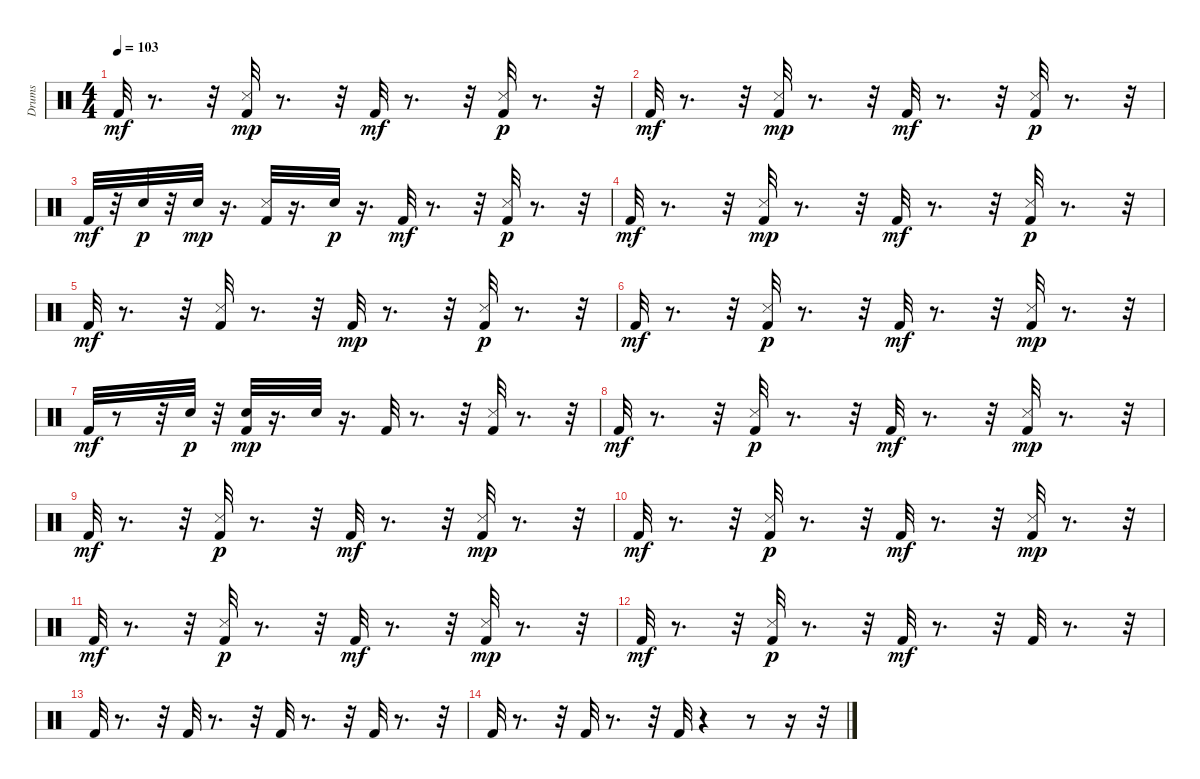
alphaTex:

\track ("Drums" "Drums") {instrument percussion}
\staff {score}
\articulation defaults
\ts (4 4)
\tempo 103
\clef neutral
\ks c "Kick (hit) 2".32{dy mf}
r.8{d} r.32 ("Kick (hit) 2" "Snare (side stick) 3").32{dy mp} r.8{d} r.32 "Kick (hit) 2".32{dy mf} r.8{d} r.32 ("Kick (hit) 2" "Snare (side stick) 3").32{dy p} r.8{d} r.32 |
"Kick (hit) 2".32{dy mf} r.8{d} r.32 ("Kick (hit) 2" "Snare (side stick) 3").32{dy mp} r.8{d} r.32 "Kick (hit) 2".32{dy mf} r.8{d} r.32 ("Kick (hit) 2" "Snare (side stick) 3").32{dy p} r.8{d} r.32 |
"Kick (hit) 2".32{dy mf} r.32 "Electric Snare (hit)".32{dy p} r.32 "Electric Snare (hit)".32{dy mp} r.16{d} ("Kick (hit) 2" "Snare (side stick) 3").32 r.16{d} "Electric Snare (hit)".32{dy p} r.16{d} "Kick (hit) 2".32{dy mf} r.8{d} r.32 ("Kick (hit) 2" "Snare (side stick) 3").32{dy p} r.8{d} r.32 |
"Kick (hit) 2".32{dy mf} r.8{d} r.32 ("Kick (hit) 2" "Snare (side stick) 3").32{dy mp} r.8{d} r.32 "Kick (hit) 2".32{dy mf} r.8{d} r.32 ("Kick (hit) 2" "Snare (side stick) 3").32{dy p} r.8{d} r.32 |
"Kick (hit) 2".32{dy mf} r.8{d} r.32 ("Kick (hit) 2" "Snare (side stick) 3").32 r.8{d} r.32 "Kick (hit) 2".32{dy mp} r.8{d} r.32 ("Kick (hit) 2" "Snare (side stick) 3").32{dy p} r.8{d} r.32 |
"Kick (hit) 2".32{dy mf} r.8{d} r.32 ("Kick (hit) 2" "Snare (side stick) 3").32{dy p} r.8{d} r.32 "Kick (hit) 2".32{dy mf} r.8{d} r.32 ("Kick (hit) 2" "Snare (side stick) 3").32{dy mp} r.8{d} r.32 |
"Kick (hit) 2".32{dy mf} r.8 r.32 "Electric Snare (hit)".32{dy p} r.32 ("Kick (hit) 2" "Electric Snare (hit)").32{dy mp} r.16{d} "Electric Snare (hit)".32 r.16{d} "Kick (hit) 2".32 r.8{d} r.32 ("Kick (hit) 2" "Snare (side stick) 3").32 r.8{d} r.32 |
"Kick (hit) 2".32{dy mf} r.8{d} r.32 ("Kick (hit) 2" "Snare (side stick) 3").32{dy p} r.8{d} r.32 "Kick (hit) 2".32{dy mf} r.8{d} r.32 ("Kick (hit) 2" "Snare (side stick) 3").32{dy mp} r.8{d} r.32 |
"Kick (hit) 2".32{dy mf} r.8{d} r.32 ("Kick (hit) 2" "Snare (side stick) 3").32{dy p} r.8{d} r.32 "Kick (hit) 2".32{dy mf} r.8{d} r.32 ("Kick (hit) 2" "Snare (side stick) 3").32{dy mp} r.8{d} r.32 |
"Kick (hit) 2".32{dy mf} r.8{d} r.32 ("Kick (hit) 2" "Snare (side stick) 3").32{dy p} r.8{d} r.32 "Kick (hit) 2".32{dy mf} r.8{d} r.32 ("Kick (hit) 2" "Snare (side stick) 3").32{dy mp} r.8{d} r.32 |
"Kick (hit) 2".32{dy mf} r.8{d} r.32 ("Kick (hit) 2" "Snare (side stick) 3").32{dy p} r.8{d} r.32 "Kick (hit) 2".32{dy mf} r.8{d} r.32 ("Kick (hit) 2" "Snare (side stick) 3").32{dy mp} r.8{d} r.32 |
"Kick (hit) 2".32{dy mf} r.8{d} r.32 ("Kick (hit) 2" "Snare (side stick) 3").32{dy p} r.8{d} r.32 "Kick (hit) 2".32{dy mf} r.8{d} r.32 "Kick (hit) 2".32 r.8{d} r.32 |
"Kick (hit) 2".32 r.8{d} r.32 "Kick (hit) 2".32 r.8{d} r.32 "Kick (hit) 2".32 r.8{d} r.32 "Kick (hit) 2".32 r.8{d} r.32 |
"Kick (hit) 2".32 r.8{d} r.32 "Kick (hit) 2".32 r.8{d} r.32 "Kick (hit) 2".32 r.4 r.8 r.16 r.32
